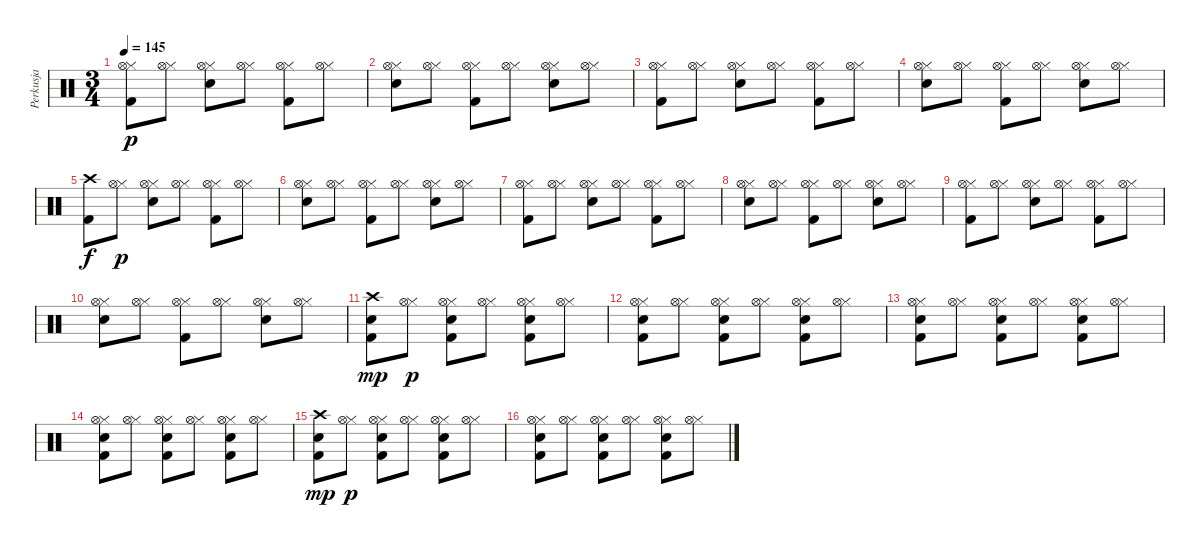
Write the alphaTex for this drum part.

\track ("Perkusja" "Perkusja") {instrument percussion}
\staff {score}
\articulation defaults
\ts (3 4)
\tempo 145
\clef neutral
\ks c
("Kick (hit) 2" "Hi-Hat (closed)" "Hi-Hat (open)").8{dy p} ("Hi-Hat (closed)" "Hi-Hat (open)").8 ("Electric Snare (hit)" "Hi-Hat (closed)" "Hi-Hat (open)").8 ("Hi-Hat (closed)" "Hi-Hat (open)").8 ("Kick (hit) 2" "Hi-Hat (closed)" "Hi-Hat (open)").8 ("Hi-Hat (closed)" "Hi-Hat (open)").8 |
("Electric Snare (hit)" "Hi-Hat (closed)" "Hi-Hat (open)").8 ("Hi-Hat (closed)" "Hi-Hat (open)").8 ("Kick (hit) 2" "Hi-Hat (closed)" "Hi-Hat (open)").8 ("Hi-Hat (closed)" "Hi-Hat (open)").8 ("Electric Snare (hit)" "Hi-Hat (closed)" "Hi-Hat (open)").8 ("Hi-Hat (closed)" "Hi-Hat (open)").8 |
("Kick (hit) 2" "Hi-Hat (closed)" "Hi-Hat (open)").8 ("Hi-Hat (closed)" "Hi-Hat (open)").8 ("Electric Snare (hit)" "Hi-Hat (closed)" "Hi-Hat (open)").8 ("Hi-Hat (closed)" "Hi-Hat (open)").8 ("Kick (hit) 2" "Hi-Hat (closed)" "Hi-Hat (open)").8 ("Hi-Hat (closed)" "Hi-Hat (open)").8 |
("Electric Snare (hit)" "Hi-Hat (closed)" "Hi-Hat (open)").8 ("Hi-Hat (closed)" "Hi-Hat (open)").8 ("Kick (hit) 2" "Hi-Hat (closed)" "Hi-Hat (open)").8 ("Hi-Hat (closed)" "Hi-Hat (open)").8 ("Electric Snare (hit)" "Hi-Hat (closed)" "Hi-Hat (open)").8 ("Hi-Hat (closed)" "Hi-Hat (open)").8 |
("Kick (hit) 2" "Crash high (hit)").8{dy f} ("Hi-Hat (closed)" "Hi-Hat (open)").8{dy p} ("Electric Snare (hit)" "Hi-Hat (closed)" "Hi-Hat (open)").8 ("Hi-Hat (closed)" "Hi-Hat (open)").8 ("Kick (hit) 2" "Hi-Hat (closed)" "Hi-Hat (open)").8 ("Hi-Hat (closed)" "Hi-Hat (open)").8 |
("Electric Snare (hit)" "Hi-Hat (closed)" "Hi-Hat (open)").8 ("Hi-Hat (closed)" "Hi-Hat (open)").8 ("Kick (hit) 2" "Hi-Hat (closed)" "Hi-Hat (open)").8 ("Hi-Hat (closed)" "Hi-Hat (open)").8 ("Electric Snare (hit)" "Hi-Hat (closed)" "Hi-Hat (open)").8 ("Hi-Hat (closed)" "Hi-Hat (open)").8 |
("Kick (hit) 2" "Hi-Hat (closed)" "Hi-Hat (open)").8 ("Hi-Hat (closed)" "Hi-Hat (open)").8 ("Electric Snare (hit)" "Hi-Hat (closed)" "Hi-Hat (open)").8 ("Hi-Hat (closed)" "Hi-Hat (open)").8 ("Kick (hit) 2" "Hi-Hat (closed)" "Hi-Hat (open)").8 ("Hi-Hat (closed)" "Hi-Hat (open)").8 |
("Electric Snare (hit)" "Hi-Hat (closed)" "Hi-Hat (open)").8 ("Hi-Hat (closed)" "Hi-Hat (open)").8 ("Kick (hit) 2" "Hi-Hat (closed)" "Hi-Hat (open)").8 ("Hi-Hat (closed)" "Hi-Hat (open)").8 ("Electric Snare (hit)" "Hi-Hat (closed)" "Hi-Hat (open)").8 ("Hi-Hat (closed)" "Hi-Hat (open)").8 |
("Kick (hit) 2" "Hi-Hat (closed)" "Hi-Hat (open)").8 ("Hi-Hat (closed)" "Hi-Hat (open)").8 ("Electric Snare (hit)" "Hi-Hat (closed)" "Hi-Hat (open)").8 ("Hi-Hat (closed)" "Hi-Hat (open)").8 ("Kick (hit) 2" "Hi-Hat (closed)" "Hi-Hat (open)").8 ("Hi-Hat (closed)" "Hi-Hat (open)").8 |
("Electric Snare (hit)" "Hi-Hat (closed)" "Hi-Hat (open)").8 ("Hi-Hat (closed)" "Hi-Hat (open)").8 ("Kick (hit) 2" "Hi-Hat (closed)" "Hi-Hat (open)").8 ("Hi-Hat (closed)" "Hi-Hat (open)").8 ("Electric Snare (hit)" "Hi-Hat (closed)" "Hi-Hat (open)").8 ("Hi-Hat (closed)" "Hi-Hat (open)").8 |
("Kick (hit) 2" "Electric Snare (hit)" "Crash high (hit)").8{dy mp} ("Hi-Hat (closed)" "Hi-Hat (open)").8{dy p} ("Kick (hit) 2" "Electric Snare (hit)" "Hi-Hat (closed)" "Hi-Hat (open)").8 ("Hi-Hat (closed)" "Hi-Hat (open)").8 ("Kick (hit) 2" "Electric Snare (hit)" "Hi-Hat (closed)" "Hi-Hat (open)").8 ("Hi-Hat (closed)" "Hi-Hat (open)").8 |
("Kick (hit) 2" "Electric Snare (hit)" "Hi-Hat (closed)" "Hi-Hat (open)").8 ("Hi-Hat (closed)" "Hi-Hat (open)").8 ("Kick (hit) 2" "Electric Snare (hit)" "Hi-Hat (closed)" "Hi-Hat (open)").8 ("Hi-Hat (closed)" "Hi-Hat (open)").8 ("Kick (hit) 2" "Electric Snare (hit)" "Hi-Hat (closed)" "Hi-Hat (open)").8 ("Hi-Hat (closed)" "Hi-Hat (open)").8 |
("Kick (hit) 2" "Electric Snare (hit)" "Hi-Hat (closed)" "Hi-Hat (open)").8 ("Hi-Hat (closed)" "Hi-Hat (open)").8 ("Kick (hit) 2" "Electric Snare (hit)" "Hi-Hat (closed)" "Hi-Hat (open)").8 ("Hi-Hat (closed)" "Hi-Hat (open)").8 ("Kick (hit) 2" "Electric Snare (hit)" "Hi-Hat (closed)" "Hi-Hat (open)").8 ("Hi-Hat (closed)" "Hi-Hat (open)").8 |
("Kick (hit) 2" "Electric Snare (hit)" "Hi-Hat (closed)" "Hi-Hat (open)").8 ("Hi-Hat (closed)" "Hi-Hat (open)").8 ("Kick (hit) 2" "Electric Snare (hit)" "Hi-Hat (closed)" "Hi-Hat (open)").8 ("Hi-Hat (closed)" "Hi-Hat (open)").8 ("Kick (hit) 2" "Electric Snare (hit)" "Hi-Hat (closed)" "Hi-Hat (open)").8 ("Hi-Hat (closed)" "Hi-Hat (open)").8 |
("Kick (hit) 2" "Electric Snare (hit)" "Crash high (hit)").8{dy mp} ("Hi-Hat (closed)" "Hi-Hat (open)").8{dy p} ("Kick (hit) 2" "Electric Snare (hit)" "Hi-Hat (closed)" "Hi-Hat (open)").8 ("Hi-Hat (closed)" "Hi-Hat (open)").8 ("Kick (hit) 2" "Electric Snare (hit)" "Hi-Hat (closed)" "Hi-Hat (open)").8 ("Hi-Hat (closed)" "Hi-Hat (open)").8 |
("Kick (hit) 2" "Electric Snare (hit)" "Hi-Hat (closed)" "Hi-Hat (open)").8 ("Hi-Hat (closed)" "Hi-Hat (open)").8 ("Kick (hit) 2" "Electric Snare (hit)" "Hi-Hat (closed)" "Hi-Hat (open)").8 ("Hi-Hat (closed)" "Hi-Hat (open)").8 ("Kick (hit) 2" "Electric Snare (hit)" "Hi-Hat (closed)" "Hi-Hat (open)").8 ("Hi-Hat (closed)" "Hi-Hat (open)").8
